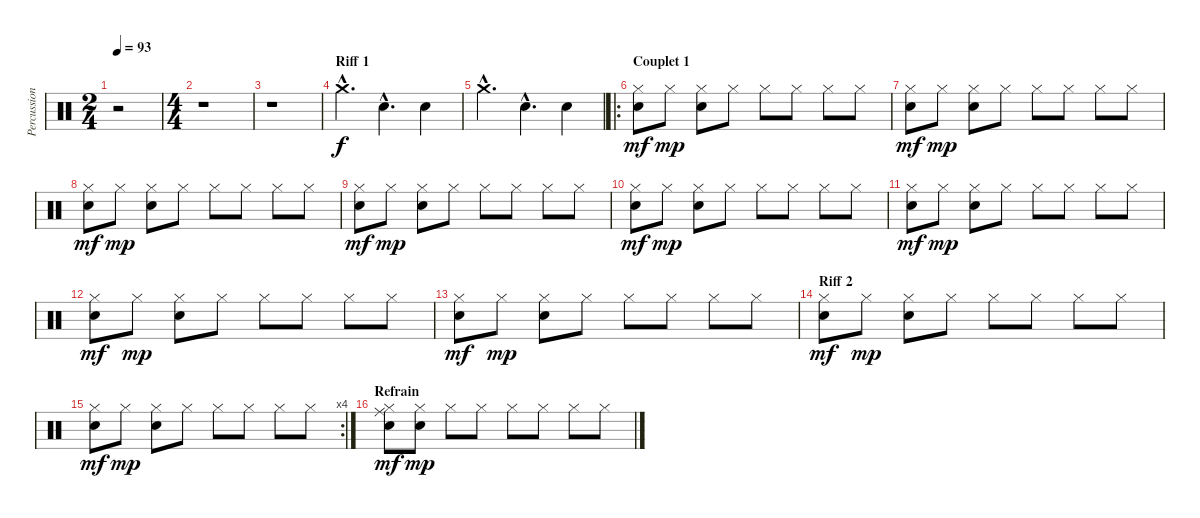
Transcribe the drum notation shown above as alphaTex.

\track ("Percussions" "Percussion") {instrument percussion}
\staff {score}
\articulation defaults
\ts (2 4)
\tempo 93
\clef neutral
\ks c
r.2{dy f} |
\ts (4 4)
r.1 |
r.1 |
\section ("" "Riff 1")
"Crash medium (hit)"{hac}.4{d} "Electric Snare (hit)"{hac}.4{d} "Electric Snare (hit)".4 |
"Crash medium (hit)"{hac}.4{d} "Electric Snare (hit)"{hac}.4{d} "Electric Snare (hit)".4 |
\ro
\section ("" "Couplet 1")
("Hi-Hat (closed)" "Electric Snare (hit)").8{dy mf} "Hi-Hat (closed)".8{dy mp} ("Hi-Hat (closed)" "Electric Snare (hit)").8 "Hi-Hat (closed)".8 "Hi-Hat (closed)".8 "Hi-Hat (closed)".8 "Hi-Hat (closed)".8 "Hi-Hat (closed)".8 |
("Hi-Hat (closed)" "Electric Snare (hit)").8{dy mf} "Hi-Hat (closed)".8{dy mp} ("Hi-Hat (closed)" "Electric Snare (hit)").8 "Hi-Hat (closed)".8 "Hi-Hat (closed)".8 "Hi-Hat (closed)".8 "Hi-Hat (closed)".8 "Hi-Hat (closed)".8 |
("Hi-Hat (closed)" "Electric Snare (hit)").8{dy mf} "Hi-Hat (closed)".8{dy mp} ("Hi-Hat (closed)" "Electric Snare (hit)").8 "Hi-Hat (closed)".8 "Hi-Hat (closed)".8 "Hi-Hat (closed)".8 "Hi-Hat (closed)".8 "Hi-Hat (closed)".8 |
("Hi-Hat (closed)" "Electric Snare (hit)").8{dy mf} "Hi-Hat (closed)".8{dy mp} ("Hi-Hat (closed)" "Electric Snare (hit)").8 "Hi-Hat (closed)".8 "Hi-Hat (closed)".8 "Hi-Hat (closed)".8 "Hi-Hat (closed)".8 "Hi-Hat (closed)".8 |
("Hi-Hat (closed)" "Electric Snare (hit)").8{dy mf} "Hi-Hat (closed)".8{dy mp} ("Hi-Hat (closed)" "Electric Snare (hit)").8 "Hi-Hat (closed)".8 "Hi-Hat (closed)".8 "Hi-Hat (closed)".8 "Hi-Hat (closed)".8 "Hi-Hat (closed)".8 |
("Hi-Hat (closed)" "Electric Snare (hit)").8{dy mf} "Hi-Hat (closed)".8{dy mp} ("Hi-Hat (closed)" "Electric Snare (hit)").8 "Hi-Hat (closed)".8 "Hi-Hat (closed)".8 "Hi-Hat (closed)".8 "Hi-Hat (closed)".8 "Hi-Hat (closed)".8 |
("Hi-Hat (closed)" "Electric Snare (hit)").8{dy mf} "Hi-Hat (closed)".8{dy mp} ("Hi-Hat (closed)" "Electric Snare (hit)").8 "Hi-Hat (closed)".8 "Hi-Hat (closed)".8 "Hi-Hat (closed)".8 "Hi-Hat (closed)".8 "Hi-Hat (closed)".8 |
("Hi-Hat (closed)" "Electric Snare (hit)").8{dy mf} "Hi-Hat (closed)".8{dy mp} ("Hi-Hat (closed)" "Electric Snare (hit)").8 "Hi-Hat (closed)".8 "Hi-Hat (closed)".8 "Hi-Hat (closed)".8 "Hi-Hat (closed)".8 "Hi-Hat (closed)".8 |
\section ("" "Riff 2")
("Hi-Hat (closed)" "Electric Snare (hit)").8{dy mf} "Hi-Hat (closed)".8{dy mp} ("Hi-Hat (closed)" "Electric Snare (hit)").8 "Hi-Hat (closed)".8 "Hi-Hat (closed)".8 "Hi-Hat (closed)".8 "Hi-Hat (closed)".8 "Hi-Hat (closed)".8 |
\rc 4
("Hi-Hat (closed)" "Electric Snare (hit)").8{dy mf} "Hi-Hat (closed)".8{dy mp} ("Hi-Hat (closed)" "Electric Snare (hit)").8 "Hi-Hat (closed)".8 "Hi-Hat (closed)".8 "Hi-Hat (closed)".8 "Hi-Hat (closed)".8 "Hi-Hat (closed)".8 |
\section ("" "Refrain")
("Hi-Hat (closed)" "Ride (middle)" "Electric Snare (hit)").8{dy mf} ("Hi-Hat (closed)" "Electric Snare (hit)").8{dy mp} "Hi-Hat (closed)".8 "Hi-Hat (closed)".8 "Hi-Hat (closed)".8 "Hi-Hat (closed)".8 "Hi-Hat (closed)".8 "Hi-Hat (closed)".8
